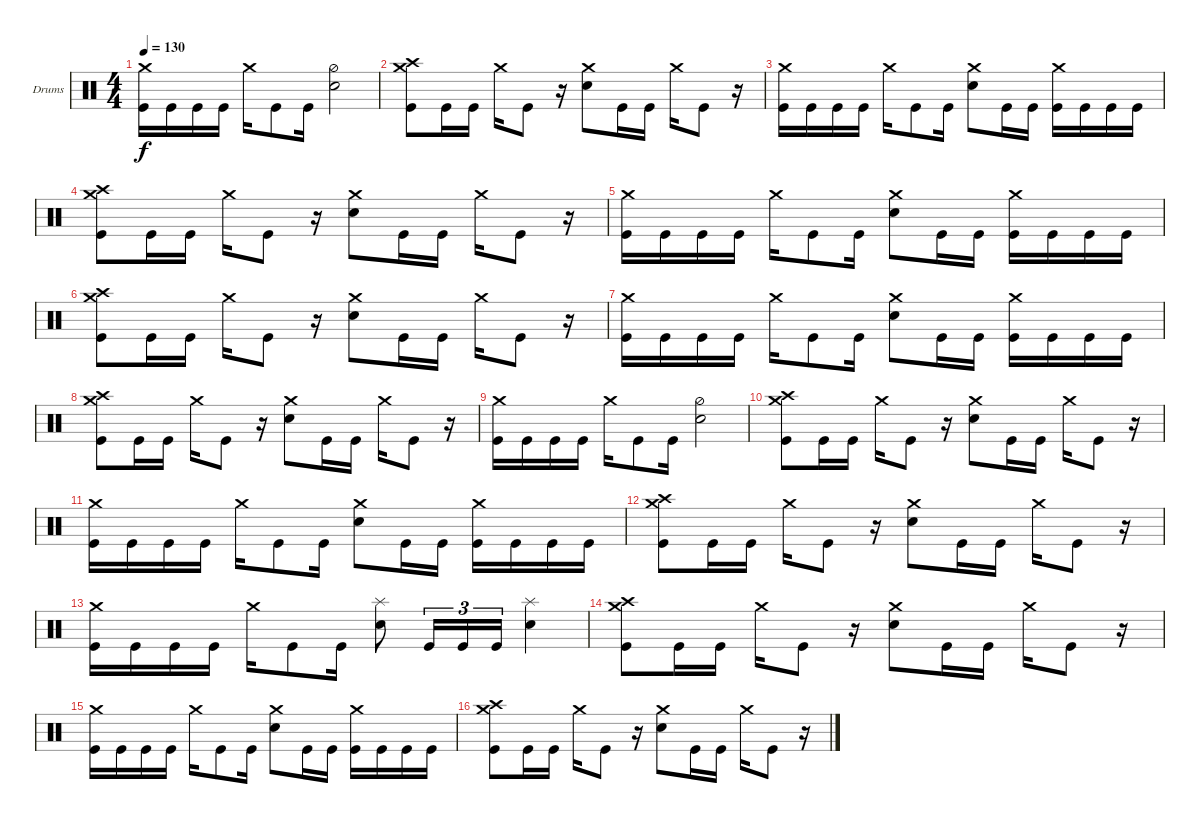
\bracketExtendMode groupsimilarinstruments
\firstSystemTrackNameOrientation horizontal
\otherSystemsTrackNameOrientation horizontal
\track ("Drumkit" "Drums") {instrument percussion}
\staff {score}
\articulation defaults
\ts (4 4)
\tempo 130
\clef neutral
\ks c
("Kick (hit)" "Crash medium (hit)").16{dy f} "Kick (hit)".16 "Kick (hit)".16 "Kick (hit)".16 "Crash medium (hit)".16 "Kick (hit)".8 "Kick (hit)".16 ("Snare (hit) 2" "Hi-Hat (half)").2 |
("Kick (hit)" "Crash high (hit)" "Crash medium (hit)").8 "Kick (hit)".16 "Kick (hit)".16 "Crash medium (hit)".16 "Kick (hit)".8 r.16 ("Crash medium (hit)" "Snare (hit) 2").8 "Kick (hit)".16 "Kick (hit)".16 "Crash medium (hit)".16 "Kick (hit)".8 r.16 |
("Kick (hit)" "Crash medium (hit)").16 "Kick (hit)".16 "Kick (hit)".16 "Kick (hit)".16 "Crash medium (hit)".16 "Kick (hit)".8 "Kick (hit)".16 ("Snare (hit) 2" "Crash medium (hit)").8 "Kick (hit)".16 "Kick (hit)".16 ("Kick (hit)" "Crash medium (hit)").16 "Kick (hit)".16 "Kick (hit)".16 "Kick (hit)".16 |
("Kick (hit)" "Crash high (hit)" "Crash medium (hit)").8 "Kick (hit)".16 "Kick (hit)".16 "Crash medium (hit)".16 "Kick (hit)".8 r.16 ("Crash medium (hit)" "Snare (hit) 2").8 "Kick (hit)".16 "Kick (hit)".16 "Crash medium (hit)".16 "Kick (hit)".8 r.16 |
("Kick (hit)" "Crash medium (hit)").16 "Kick (hit)".16 "Kick (hit)".16 "Kick (hit)".16 "Crash medium (hit)".16 "Kick (hit)".8 "Kick (hit)".16 ("Snare (hit) 2" "Crash medium (hit)").8 "Kick (hit)".16 "Kick (hit)".16 ("Kick (hit)" "Crash medium (hit)").16 "Kick (hit)".16 "Kick (hit)".16 "Kick (hit)".16 |
("Kick (hit)" "Crash high (hit)" "Crash medium (hit)").8 "Kick (hit)".16 "Kick (hit)".16 "Crash medium (hit)".16 "Kick (hit)".8 r.16 ("Crash medium (hit)" "Snare (hit) 2").8 "Kick (hit)".16 "Kick (hit)".16 "Crash medium (hit)".16 "Kick (hit)".8 r.16 |
("Kick (hit)" "Crash medium (hit)").16 "Kick (hit)".16 "Kick (hit)".16 "Kick (hit)".16 "Crash medium (hit)".16 "Kick (hit)".8 "Kick (hit)".16 ("Snare (hit) 2" "Crash medium (hit)").8 "Kick (hit)".16 "Kick (hit)".16 ("Kick (hit)" "Crash medium (hit)").16 "Kick (hit)".16 "Kick (hit)".16 "Kick (hit)".16 |
("Kick (hit)" "Crash high (hit)" "Crash medium (hit)").8 "Kick (hit)".16 "Kick (hit)".16 "Crash medium (hit)".16 "Kick (hit)".8 r.16 ("Crash medium (hit)" "Snare (hit) 2").8 "Kick (hit)".16 "Kick (hit)".16 "Crash medium (hit)".16 "Kick (hit)".8 r.16 |
("Kick (hit)" "Crash medium (hit)").16 "Kick (hit)".16 "Kick (hit)".16 "Kick (hit)".16 "Crash medium (hit)".16 "Kick (hit)".8 "Kick (hit)".16 ("Snare (hit) 2" "Hi-Hat (half)").2 |
("Kick (hit)" "Crash high (hit)" "Crash medium (hit)").8 "Kick (hit)".16 "Kick (hit)".16 "Crash medium (hit)".16 "Kick (hit)".8 r.16 ("Crash medium (hit)" "Snare (hit) 2").8 "Kick (hit)".16 "Kick (hit)".16 "Crash medium (hit)".16 "Kick (hit)".8 r.16 |
("Kick (hit)" "Crash medium (hit)").16 "Kick (hit)".16 "Kick (hit)".16 "Kick (hit)".16 "Crash medium (hit)".16 "Kick (hit)".8 "Kick (hit)".16 ("Snare (hit) 2" "Crash medium (hit)").8 "Kick (hit)".16 "Kick (hit)".16 ("Kick (hit)" "Crash medium (hit)").16 "Kick (hit)".16 "Kick (hit)".16 "Kick (hit)".16 |
("Kick (hit)" "Crash high (hit)" "Crash medium (hit)").8 "Kick (hit)".16 "Kick (hit)".16 "Crash medium (hit)".16 "Kick (hit)".8 r.16 ("Crash medium (hit)" "Snare (hit) 2").8 "Kick (hit)".16 "Kick (hit)".16 "Crash medium (hit)".16 "Kick (hit)".8 r.16 |
("Kick (hit)" "Crash medium (hit)").16 "Kick (hit)".16 "Kick (hit)".16 "Kick (hit)".16 "Crash medium (hit)".16 "Kick (hit)".8 "Kick (hit)".16 ("Snare (hit) 2" "Splash (hit)").8 "Kick (hit)".16{tu (3 2)} "Kick (hit)".16{tu (3 2)} "Kick (hit)".16{tu (3 2)} ("Snare (hit) 2" "Splash (hit)").4 |
("Kick (hit)" "Crash high (hit)" "Crash medium (hit)").8 "Kick (hit)".16 "Kick (hit)".16 "Crash medium (hit)".16 "Kick (hit)".8 r.16 ("Crash medium (hit)" "Snare (hit) 2").8 "Kick (hit)".16 "Kick (hit)".16 "Crash medium (hit)".16 "Kick (hit)".8 r.16 |
("Kick (hit)" "Crash medium (hit)").16 "Kick (hit)".16 "Kick (hit)".16 "Kick (hit)".16 "Crash medium (hit)".16 "Kick (hit)".8 "Kick (hit)".16 ("Snare (hit) 2" "Crash medium (hit)").8 "Kick (hit)".16 "Kick (hit)".16 ("Kick (hit)" "Crash medium (hit)").16 "Kick (hit)".16 "Kick (hit)".16 "Kick (hit)".16 |
("Kick (hit)" "Crash high (hit)" "Crash medium (hit)").8 "Kick (hit)".16 "Kick (hit)".16 "Crash medium (hit)".16 "Kick (hit)".8 r.16 ("Crash medium (hit)" "Snare (hit) 2").8 "Kick (hit)".16 "Kick (hit)".16 "Crash medium (hit)".16 "Kick (hit)".8 r.16
